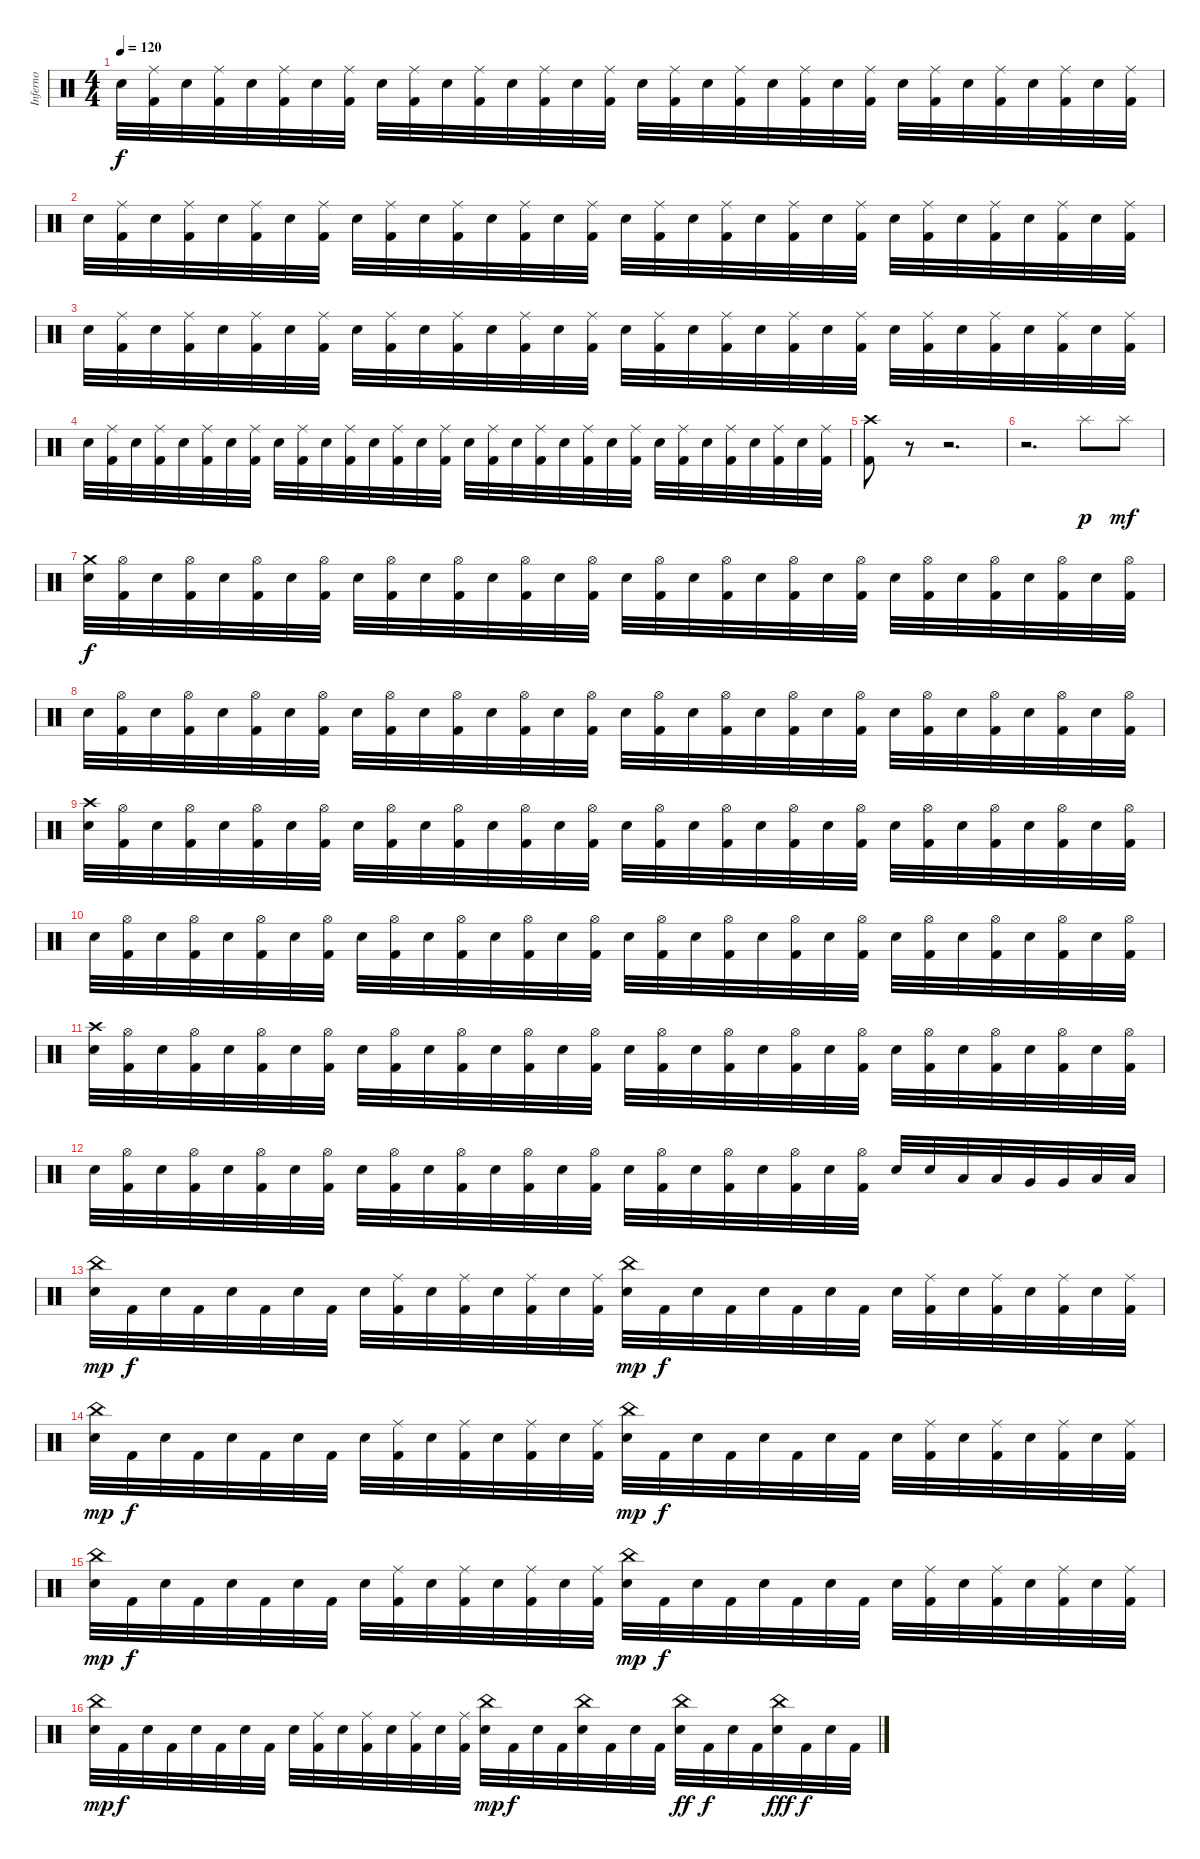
\track ("Inferno" "Inferno") {instrument percussion}
\staff {score}
\articulation defaults
\ts (4 4)
\tempo 120
\clef neutral
\ks c "Electric Snare (hit)".32{dy f}
("Ride (middle)" "Kick (hit) 2").32 "Electric Snare (hit)".32 ("Ride (middle)" "Kick (hit) 2").32 "Electric Snare (hit)".32 ("Ride (middle)" "Kick (hit) 2").32 "Electric Snare (hit)".32 ("Ride (middle)" "Kick (hit) 2").32 "Electric Snare (hit)".32 ("Ride (middle)" "Kick (hit) 2").32 "Electric Snare (hit)".32 ("Ride (middle)" "Kick (hit) 2").32 "Electric Snare (hit)".32 ("Ride (middle)" "Kick (hit) 2").32 "Electric Snare (hit)".32 ("Ride (middle)" "Kick (hit) 2").32 "Electric Snare (hit)".32 ("Ride (middle)" "Kick (hit) 2").32 "Electric Snare (hit)".32 ("Ride (middle)" "Kick (hit) 2").32 "Electric Snare (hit)".32 ("Ride (middle)" "Kick (hit) 2").32 "Electric Snare (hit)".32 ("Ride (middle)" "Kick (hit) 2").32 "Electric Snare (hit)".32 ("Ride (middle)" "Kick (hit) 2").32 "Electric Snare (hit)".32 ("Ride (middle)" "Kick (hit) 2").32 "Electric Snare (hit)".32 ("Ride (middle)" "Kick (hit) 2").32 "Electric Snare (hit)".32 ("Ride (middle)" "Kick (hit) 2").32 |
"Electric Snare (hit)".32 ("Ride (middle)" "Kick (hit) 2").32 "Electric Snare (hit)".32 ("Ride (middle)" "Kick (hit) 2").32 "Electric Snare (hit)".32 ("Ride (middle)" "Kick (hit) 2").32 "Electric Snare (hit)".32 ("Ride (middle)" "Kick (hit) 2").32 "Electric Snare (hit)".32 ("Ride (middle)" "Kick (hit) 2").32 "Electric Snare (hit)".32 ("Ride (middle)" "Kick (hit) 2").32 "Electric Snare (hit)".32 ("Ride (middle)" "Kick (hit) 2").32 "Electric Snare (hit)".32 ("Ride (middle)" "Kick (hit) 2").32 "Electric Snare (hit)".32 ("Ride (middle)" "Kick (hit) 2").32 "Electric Snare (hit)".32 ("Ride (middle)" "Kick (hit) 2").32 "Electric Snare (hit)".32 ("Ride (middle)" "Kick (hit) 2").32 "Electric Snare (hit)".32 ("Ride (middle)" "Kick (hit) 2").32 "Electric Snare (hit)".32 ("Ride (middle)" "Kick (hit) 2").32 "Electric Snare (hit)".32 ("Ride (middle)" "Kick (hit) 2").32 "Electric Snare (hit)".32 ("Ride (middle)" "Kick (hit) 2").32 "Electric Snare (hit)".32 ("Ride (middle)" "Kick (hit) 2").32 |
"Electric Snare (hit)".32 ("Ride (middle)" "Kick (hit) 2").32 "Electric Snare (hit)".32 ("Ride (middle)" "Kick (hit) 2").32 "Electric Snare (hit)".32 ("Ride (middle)" "Kick (hit) 2").32 "Electric Snare (hit)".32 ("Ride (middle)" "Kick (hit) 2").32 "Electric Snare (hit)".32 ("Ride (middle)" "Kick (hit) 2").32 "Electric Snare (hit)".32 ("Ride (middle)" "Kick (hit) 2").32 "Electric Snare (hit)".32 ("Ride (middle)" "Kick (hit) 2").32 "Electric Snare (hit)".32 ("Ride (middle)" "Kick (hit) 2").32 "Electric Snare (hit)".32 ("Ride (middle)" "Kick (hit) 2").32 "Electric Snare (hit)".32 ("Ride (middle)" "Kick (hit) 2").32 "Electric Snare (hit)".32 ("Ride (middle)" "Kick (hit) 2").32 "Electric Snare (hit)".32 ("Ride (middle)" "Kick (hit) 2").32 "Electric Snare (hit)".32 ("Ride (middle)" "Kick (hit) 2").32 "Electric Snare (hit)".32 ("Ride (middle)" "Kick (hit) 2").32 "Electric Snare (hit)".32 ("Ride (middle)" "Kick (hit) 2").32 "Electric Snare (hit)".32 ("Ride (middle)" "Kick (hit) 2").32 |
"Electric Snare (hit)".32 ("Ride (middle)" "Kick (hit) 2").32 "Electric Snare (hit)".32 ("Ride (middle)" "Kick (hit) 2").32 "Electric Snare (hit)".32 ("Ride (middle)" "Kick (hit) 2").32 "Electric Snare (hit)".32 ("Ride (middle)" "Kick (hit) 2").32 "Electric Snare (hit)".32 ("Ride (middle)" "Kick (hit) 2").32 "Electric Snare (hit)".32 ("Ride (middle)" "Kick (hit) 2").32 "Electric Snare (hit)".32 ("Ride (middle)" "Kick (hit) 2").32 "Electric Snare (hit)".32 ("Ride (middle)" "Kick (hit) 2").32 "Electric Snare (hit)".32 ("Ride (middle)" "Kick (hit) 2").32 "Electric Snare (hit)".32 ("Ride (middle)" "Kick (hit) 2").32 "Electric Snare (hit)".32 ("Ride (middle)" "Kick (hit) 2").32 "Electric Snare (hit)".32 ("Ride (middle)" "Kick (hit) 2").32 "Electric Snare (hit)".32 ("Ride (middle)" "Kick (hit) 2").32 "Electric Snare (hit)".32 ("Ride (middle)" "Kick (hit) 2").32 "Electric Snare (hit)".32 ("Ride (middle)" "Kick (hit) 2").32 "Electric Snare (hit)".32 ("Ride (middle)" "Kick (hit) 2").32 |
("Crash high (hit)" "Kick (hit) 2").8 r.8{volume 0} r.2{d} |
r.2{d volume 13} "Splash (hit)".8{dy p} "Splash (hit)".8{dy mf} |
("Crash medium (hit)" "Electric Snare (hit)").32{dy f} ("Hi-Hat (open)" "Kick (hit) 2").32 "Electric Snare (hit)".32 ("Hi-Hat (open)" "Kick (hit) 2").32 "Electric Snare (hit)".32 ("Hi-Hat (open)" "Kick (hit) 2").32 "Electric Snare (hit)".32 ("Hi-Hat (open)" "Kick (hit) 2").32 "Electric Snare (hit)".32 ("Hi-Hat (open)" "Kick (hit) 2").32 "Electric Snare (hit)".32 ("Hi-Hat (open)" "Kick (hit) 2").32 "Electric Snare (hit)".32 ("Hi-Hat (open)" "Kick (hit) 2").32 "Electric Snare (hit)".32 ("Hi-Hat (open)" "Kick (hit) 2").32 "Electric Snare (hit)".32 ("Hi-Hat (open)" "Kick (hit) 2").32 "Electric Snare (hit)".32 ("Hi-Hat (open)" "Kick (hit) 2").32 "Electric Snare (hit)".32 ("Hi-Hat (open)" "Kick (hit) 2").32 "Electric Snare (hit)".32 ("Hi-Hat (open)" "Kick (hit) 2").32 "Electric Snare (hit)".32 ("Hi-Hat (open)" "Kick (hit) 2").32 "Electric Snare (hit)".32 ("Hi-Hat (open)" "Kick (hit) 2").32 "Electric Snare (hit)".32 ("Hi-Hat (open)" "Kick (hit) 2").32 "Electric Snare (hit)".32 ("Hi-Hat (open)" "Kick (hit) 2").32 |
"Electric Snare (hit)".32 ("Hi-Hat (open)" "Kick (hit) 2").32 "Electric Snare (hit)".32 ("Hi-Hat (open)" "Kick (hit) 2").32 "Electric Snare (hit)".32 ("Hi-Hat (open)" "Kick (hit) 2").32 "Electric Snare (hit)".32 ("Hi-Hat (open)" "Kick (hit) 2").32 "Electric Snare (hit)".32 ("Hi-Hat (open)" "Kick (hit) 2").32 "Electric Snare (hit)".32 ("Hi-Hat (open)" "Kick (hit) 2").32 "Electric Snare (hit)".32 ("Hi-Hat (open)" "Kick (hit) 2").32 "Electric Snare (hit)".32 ("Hi-Hat (open)" "Kick (hit) 2").32 "Electric Snare (hit)".32 ("Hi-Hat (open)" "Kick (hit) 2").32 "Electric Snare (hit)".32 ("Hi-Hat (open)" "Kick (hit) 2").32 "Electric Snare (hit)".32 ("Hi-Hat (open)" "Kick (hit) 2").32 "Electric Snare (hit)".32 ("Hi-Hat (open)" "Kick (hit) 2").32 "Electric Snare (hit)".32 ("Hi-Hat (open)" "Kick (hit) 2").32 "Electric Snare (hit)".32 ("Hi-Hat (open)" "Kick (hit) 2").32 "Electric Snare (hit)".32 ("Hi-Hat (open)" "Kick (hit) 2").32 "Electric Snare (hit)".32 ("Hi-Hat (open)" "Kick (hit) 2").32 |
("Crash high (hit)" "Electric Snare (hit)").32 ("Hi-Hat (open)" "Kick (hit) 2").32 "Electric Snare (hit)".32 ("Hi-Hat (open)" "Kick (hit) 2").32 "Electric Snare (hit)".32 ("Hi-Hat (open)" "Kick (hit) 2").32 "Electric Snare (hit)".32 ("Hi-Hat (open)" "Kick (hit) 2").32 "Electric Snare (hit)".32 ("Hi-Hat (open)" "Kick (hit) 2").32 "Electric Snare (hit)".32 ("Hi-Hat (open)" "Kick (hit) 2").32 "Electric Snare (hit)".32 ("Hi-Hat (open)" "Kick (hit) 2").32 "Electric Snare (hit)".32 ("Hi-Hat (open)" "Kick (hit) 2").32 "Electric Snare (hit)".32 ("Hi-Hat (open)" "Kick (hit) 2").32 "Electric Snare (hit)".32 ("Hi-Hat (open)" "Kick (hit) 2").32 "Electric Snare (hit)".32 ("Hi-Hat (open)" "Kick (hit) 2").32 "Electric Snare (hit)".32 ("Hi-Hat (open)" "Kick (hit) 2").32 "Electric Snare (hit)".32 ("Hi-Hat (open)" "Kick (hit) 2").32 "Electric Snare (hit)".32 ("Hi-Hat (open)" "Kick (hit) 2").32 "Electric Snare (hit)".32 ("Hi-Hat (open)" "Kick (hit) 2").32 "Electric Snare (hit)".32 ("Hi-Hat (open)" "Kick (hit) 2").32 |
"Electric Snare (hit)".32 ("Hi-Hat (open)" "Kick (hit) 2").32 "Electric Snare (hit)".32 ("Hi-Hat (open)" "Kick (hit) 2").32 "Electric Snare (hit)".32 ("Hi-Hat (open)" "Kick (hit) 2").32 "Electric Snare (hit)".32 ("Hi-Hat (open)" "Kick (hit) 2").32 "Electric Snare (hit)".32 ("Hi-Hat (open)" "Kick (hit) 2").32 "Electric Snare (hit)".32 ("Hi-Hat (open)" "Kick (hit) 2").32 "Electric Snare (hit)".32 ("Hi-Hat (open)" "Kick (hit) 2").32 "Electric Snare (hit)".32 ("Hi-Hat (open)" "Kick (hit) 2").32 "Electric Snare (hit)".32 ("Hi-Hat (open)" "Kick (hit) 2").32 "Electric Snare (hit)".32 ("Hi-Hat (open)" "Kick (hit) 2").32 "Electric Snare (hit)".32 ("Hi-Hat (open)" "Kick (hit) 2").32 "Electric Snare (hit)".32 ("Hi-Hat (open)" "Kick (hit) 2").32 "Electric Snare (hit)".32 ("Hi-Hat (open)" "Kick (hit) 2").32 "Electric Snare (hit)".32 ("Hi-Hat (open)" "Kick (hit) 2").32 "Electric Snare (hit)".32 ("Hi-Hat (open)" "Kick (hit) 2").32 "Electric Snare (hit)".32 ("Hi-Hat (open)" "Kick (hit) 2").32 |
("Crash high (hit)" "Electric Snare (hit)").32 ("Hi-Hat (open)" "Kick (hit) 2").32 "Electric Snare (hit)".32 ("Hi-Hat (open)" "Kick (hit) 2").32 "Electric Snare (hit)".32 ("Hi-Hat (open)" "Kick (hit) 2").32 "Electric Snare (hit)".32 ("Hi-Hat (open)" "Kick (hit) 2").32 "Electric Snare (hit)".32 ("Hi-Hat (open)" "Kick (hit) 2").32 "Electric Snare (hit)".32 ("Hi-Hat (open)" "Kick (hit) 2").32 "Electric Snare (hit)".32 ("Hi-Hat (open)" "Kick (hit) 2").32 "Electric Snare (hit)".32 ("Hi-Hat (open)" "Kick (hit) 2").32 "Electric Snare (hit)".32 ("Hi-Hat (open)" "Kick (hit) 2").32 "Electric Snare (hit)".32 ("Hi-Hat (open)" "Kick (hit) 2").32 "Electric Snare (hit)".32 ("Hi-Hat (open)" "Kick (hit) 2").32 "Electric Snare (hit)".32 ("Hi-Hat (open)" "Kick (hit) 2").32 "Electric Snare (hit)".32 ("Hi-Hat (open)" "Kick (hit) 2").32 "Electric Snare (hit)".32 ("Hi-Hat (open)" "Kick (hit) 2").32 "Electric Snare (hit)".32 ("Hi-Hat (open)" "Kick (hit) 2").32 "Electric Snare (hit)".32 ("Hi-Hat (open)" "Kick (hit) 2").32 |
"Electric Snare (hit)".32 ("Hi-Hat (open)" "Kick (hit) 2").32 "Electric Snare (hit)".32 ("Hi-Hat (open)" "Kick (hit) 2").32 "Electric Snare (hit)".32 ("Hi-Hat (open)" "Kick (hit) 2").32 "Electric Snare (hit)".32 ("Hi-Hat (open)" "Kick (hit) 2").32 "Electric Snare (hit)".32 ("Hi-Hat (open)" "Kick (hit) 2").32 "Electric Snare (hit)".32 ("Hi-Hat (open)" "Kick (hit) 2").32 "Electric Snare (hit)".32 ("Hi-Hat (open)" "Kick (hit) 2").32 "Electric Snare (hit)".32 ("Hi-Hat (open)" "Kick (hit) 2").32 "Electric Snare (hit)".32 ("Hi-Hat (open)" "Kick (hit) 2").32 "Electric Snare (hit)".32 ("Hi-Hat (open)" "Kick (hit) 2").32 "Electric Snare (hit)".32 ("Hi-Hat (open)" "Kick (hit) 2").32 "Electric Snare (hit)".32 ("Hi-Hat (open)" "Kick (hit) 2").32 "Electric Snare (hit)".32 "Electric Snare (hit)".32 "Low Tom (hit)".32 "Low Tom (hit)".32 "Very Low Tom (hit)".32 "Very Low Tom (hit)".32 "Low Floor Tom (hit)".32 "Low Floor Tom (hit)".32 |
("China (hit)" "Electric Snare (hit)").32{dy mp} "Kick (hit) 2".32{dy f} "Electric Snare (hit)".32 "Kick (hit) 2".32 "Electric Snare (hit)".32 "Kick (hit) 2".32 "Electric Snare (hit)".32 "Kick (hit) 2".32 "Electric Snare (hit)".32 ("Ride (middle)" "Kick (hit) 2").32 "Electric Snare (hit)".32 ("Ride (middle)" "Kick (hit) 2").32 "Electric Snare (hit)".32 ("Ride (middle)" "Kick (hit) 2").32 "Electric Snare (hit)".32 ("Ride (middle)" "Kick (hit) 2").32 ("China (hit)" "Electric Snare (hit)").32{dy mp} "Kick (hit) 2".32{dy f} "Electric Snare (hit)".32 "Kick (hit) 2".32 "Electric Snare (hit)".32 "Kick (hit) 2".32 "Electric Snare (hit)".32 "Kick (hit) 2".32 "Electric Snare (hit)".32 ("Ride (middle)" "Kick (hit) 2").32 "Electric Snare (hit)".32 ("Ride (middle)" "Kick (hit) 2").32 "Electric Snare (hit)".32 ("Ride (middle)" "Kick (hit) 2").32 "Electric Snare (hit)".32 ("Ride (middle)" "Kick (hit) 2").32 |
("China (hit)" "Electric Snare (hit)").32{dy mp} "Kick (hit) 2".32{dy f} "Electric Snare (hit)".32 "Kick (hit) 2".32 "Electric Snare (hit)".32 "Kick (hit) 2".32 "Electric Snare (hit)".32 "Kick (hit) 2".32 "Electric Snare (hit)".32 ("Ride (middle)" "Kick (hit) 2").32 "Electric Snare (hit)".32 ("Ride (middle)" "Kick (hit) 2").32 "Electric Snare (hit)".32 ("Ride (middle)" "Kick (hit) 2").32 "Electric Snare (hit)".32 ("Ride (middle)" "Kick (hit) 2").32 ("China (hit)" "Electric Snare (hit)").32{dy mp} "Kick (hit) 2".32{dy f} "Electric Snare (hit)".32 "Kick (hit) 2".32 "Electric Snare (hit)".32 "Kick (hit) 2".32 "Electric Snare (hit)".32 "Kick (hit) 2".32 "Electric Snare (hit)".32 ("Ride (middle)" "Kick (hit) 2").32 "Electric Snare (hit)".32 ("Ride (middle)" "Kick (hit) 2").32 "Electric Snare (hit)".32 ("Ride (middle)" "Kick (hit) 2").32 "Electric Snare (hit)".32 ("Ride (middle)" "Kick (hit) 2").32 |
("China (hit)" "Electric Snare (hit)").32{dy mp} "Kick (hit) 2".32{dy f} "Electric Snare (hit)".32 "Kick (hit) 2".32 "Electric Snare (hit)".32 "Kick (hit) 2".32 "Electric Snare (hit)".32 "Kick (hit) 2".32 "Electric Snare (hit)".32 ("Ride (middle)" "Kick (hit) 2").32 "Electric Snare (hit)".32 ("Ride (middle)" "Kick (hit) 2").32 "Electric Snare (hit)".32 ("Ride (middle)" "Kick (hit) 2").32 "Electric Snare (hit)".32 ("Ride (middle)" "Kick (hit) 2").32 ("China (hit)" "Electric Snare (hit)").32{dy mp} "Kick (hit) 2".32{dy f} "Electric Snare (hit)".32 "Kick (hit) 2".32 "Electric Snare (hit)".32 "Kick (hit) 2".32 "Electric Snare (hit)".32 "Kick (hit) 2".32 "Electric Snare (hit)".32 ("Ride (middle)" "Kick (hit) 2").32 "Electric Snare (hit)".32 ("Ride (middle)" "Kick (hit) 2").32 "Electric Snare (hit)".32 ("Ride (middle)" "Kick (hit) 2").32 "Electric Snare (hit)".32 ("Ride (middle)" "Kick (hit) 2").32 |
("China (hit)" "Electric Snare (hit)").32{dy mp} "Kick (hit) 2".32{dy f} "Electric Snare (hit)".32 "Kick (hit) 2".32 "Electric Snare (hit)".32 "Kick (hit) 2".32 "Electric Snare (hit)".32 "Kick (hit) 2".32 "Electric Snare (hit)".32 ("Ride (middle)" "Kick (hit) 2").32 "Electric Snare (hit)".32 ("Ride (middle)" "Kick (hit) 2").32 "Electric Snare (hit)".32 ("Ride (middle)" "Kick (hit) 2").32 "Electric Snare (hit)".32 ("Ride (middle)" "Kick (hit) 2").32 ("China (hit)" "Electric Snare (hit)").32{dy mp} "Kick (hit) 2".32{dy f} "Electric Snare (hit)".32 "Kick (hit) 2".32 ("China (hit)" "Electric Snare (hit)").32 "Kick (hit) 2".32 "Electric Snare (hit)".32 "Kick (hit) 2".32 ("China (hit)" "Electric Snare (hit)").32{dy ff} "Kick (hit) 2".32{dy f} "Electric Snare (hit)".32 "Kick (hit) 2".32 ("China (hit)" "Electric Snare (hit)").32{dy fff} "Kick (hit) 2".32{dy f} "Electric Snare (hit)".32 "Kick (hit) 2".32
